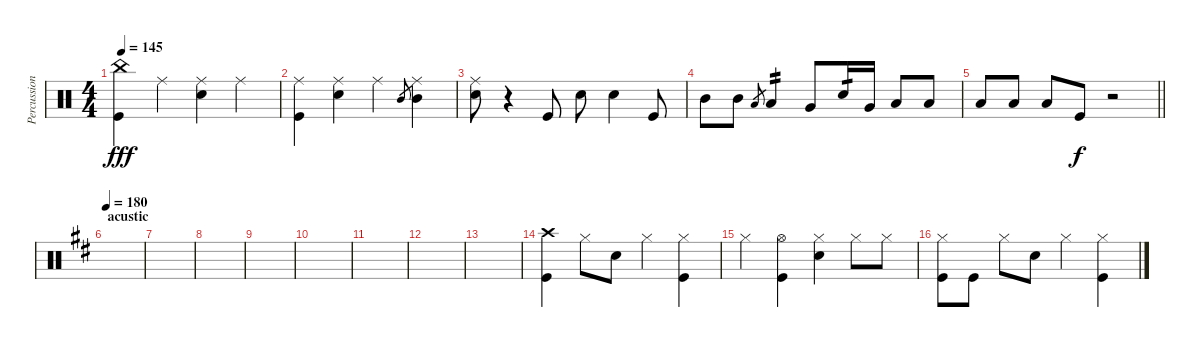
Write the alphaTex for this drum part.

\track ("Percussioni" "Percussion") {instrument percussion}
\staff {score}
\articulation defaults
\ts (4 4)
\tempo 145
\clef neutral
\ks c
("China (hit)" "Kick (hit)").4{dy fff} "Ride (middle)".4 ("Ride (middle)" "Snare (hit) 2").4 "Ride (middle)".4 |
("Ride (middle)" "Kick (hit)").4 ("Ride (middle)" "Snare (hit) 2").4 "Ride (middle)".4 "Mid Tom (hit)".8{gr} ("Ride (middle)" "Mid Tom (hit)").4 |
("Ride (middle)" "Snare (hit) 2").8 r.4 "Kick (hit)".8 "Snare (hit) 2".8 "Snare (hit) 2".4 "Kick (hit)".8 |
"Mid Tom (hit)".8 "Mid Tom (hit)".8 "Low Tom (hit)".8{gr} "Low Tom (hit)".4{tp 2} "Very Low Tom (hit)".8 "Snare (hit) 2".16{tp 1} "Very Low Tom (hit)".16 "Low Floor Tom (hit)".8 "Low Floor Tom (hit)".8 |
\barLineRight lightlight "Low Floor Tom (hit)".8 "Low Floor Tom (hit)".8 "Low Floor Tom (hit)".8 "Kick (hit)".8{dy f}
r.2 |
\section ("" "acustic")
\tempo 180
\ks d
|
|
|
|
|
|
|
|
("Crash high (hit)" "Kick (hit)").4 "Hi-Hat (closed)".8 "Snare (hit) 2".8 "Hi-Hat (closed)".4 ("Hi-Hat (closed)" "Kick (hit)").4 |
"Hi-Hat (closed)".4 ("Hi-Hat (open)" "Kick (hit)").4 ("Hi-Hat (closed)" "Snare (hit) 2").4 "Hi-Hat (closed)".8 "Hi-Hat (closed)".8 |
("Hi-Hat (closed)" "Kick (hit)").8 "Kick (hit)".8 "Hi-Hat (closed)".8 "Snare (hit) 2".8 "Hi-Hat (closed)".4 ("Hi-Hat (closed)" "Kick (hit)").4
